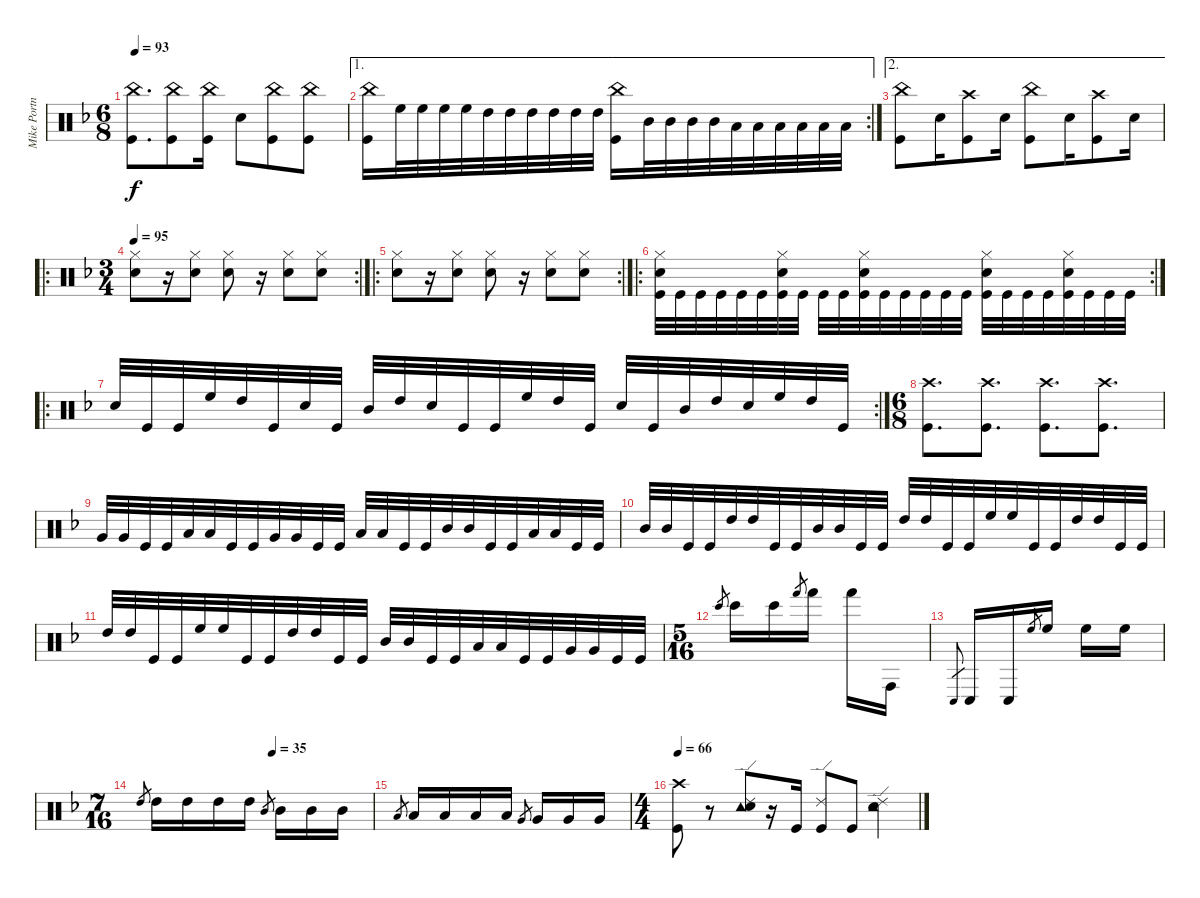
\track ("Mike Portnoy - Drums" "Mike Portn") {instrument percussion}
\staff {score}
\articulation defaults
\ts (6 8)
\tempo 93
\clef neutral
\ks dminor
("China (hit)" "Kick (hit)").8{d dy f} ("China (hit)" "Kick (hit)").8 ("China (hit)" "Kick (hit)").16 "Snare (hit) 2".8 ("China (hit)" "Kick (hit)").8 ("China (hit)" "Kick (hit)").8 |
\ae 1
\rc 2
("China (hit)" "Kick (hit)").16 "High Floor Tom (hit)".32 "High Floor Tom (hit)".32 "High Floor Tom (hit)".32 "High Floor Tom (hit)".32 "High Tom (hit)".32 "High Tom (hit)".32 "High Tom (hit)".32 "High Tom (hit)".32 "High Tom (hit)".32 "High Tom (hit)".32 ("China (hit)" "Kick (hit)").16 "Mid Tom (hit)".32 "Mid Tom (hit)".32 "Mid Tom (hit)".32 "Mid Tom (hit)".32 "Low Tom (hit)".32 "Low Tom (hit)".32 "Low Tom (hit)".32 "Low Tom (hit)".32 "Low Tom (hit)".32 "Low Tom (hit)".32 |
\ae 2
("China (hit)" "Kick (hit)").8 "Snare (hit) 2".16 ("Crash high (hit)" "Kick (hit)").8 "Snare (hit) 2".16 ("China (hit)" "Kick (hit)").8 "Snare (hit) 2".16 ("Crash high (hit)" "Kick (hit)").8 "Snare (hit) 2".16 |
\ro
\rc 2
\ts (3 4)
\tempo 95
("Hi-Hat (closed)" "Snare (hit) 2").8 r.16 ("Hi-Hat (closed)" "Snare (hit) 2").8 ("Hi-Hat (closed)" "Snare (hit) 2").8 r.16 ("Hi-Hat (closed)" "Snare (hit) 2").8 ("Hi-Hat (closed)" "Snare (hit) 2").8 |
\ro
\rc 2
("Hi-Hat (closed)" "Snare (hit) 2").8 r.16 ("Hi-Hat (closed)" "Snare (hit) 2").8 ("Hi-Hat (closed)" "Snare (hit) 2").8 r.16 ("Hi-Hat (closed)" "Snare (hit) 2").8 ("Hi-Hat (closed)" "Snare (hit) 2").8 |
\ro
\rc 2
("Hi-Hat (closed)" "Snare (hit) 2" "Kick (hit)").32 "Kick (hit)".32 "Kick (hit)".32 "Kick (hit)".32 "Kick (hit)".32 "Kick (hit)".32 ("Hi-Hat (closed)" "Snare (hit) 2" "Kick (hit)").32 "Kick (hit)".32 "Kick (hit)".32 "Kick (hit)".32 ("Hi-Hat (closed)" "Snare (hit) 2" "Kick (hit)").32 "Kick (hit)".32 "Kick (hit)".32 "Kick (hit)".32 "Kick (hit)".32 "Kick (hit)".32 ("Hi-Hat (closed)" "Snare (hit) 2" "Kick (hit)").32 "Kick (hit)".32 "Kick (hit)".32 "Kick (hit)".32 ("Hi-Hat (closed)" "Snare (hit) 2" "Kick (hit)").32 "Kick (hit)".32 "Kick (hit)".32 "Kick (hit)".32 |
\ro
\rc 2 "Snare (hit) 2".32 "Kick (hit)".32 "Kick (hit)".32 "High Floor Tom (hit)".32 "High Tom (hit)".32 "Kick (hit)".32 "Snare (hit) 2".32 "Kick (hit)".32 "Mid Tom (hit)".32 "High Tom (hit)".32 "Snare (hit) 2".32 "Kick (hit)".32 "Kick (hit)".32 "High Floor Tom (hit)".32 "High Tom (hit)".32 "Kick (hit)".32 "Snare (hit) 2".32 "Kick (hit)".32 "Mid Tom (hit)".32 "High Tom (hit)".32 "Snare (hit) 2".32 "High Floor Tom (hit)".32 "High Tom (hit)".32 "Kick (hit)".32
|
\ts (6 8)
("Crash high (hit)" "Kick (hit)").8{d} ("Crash high (hit)" "Kick (hit)").8{d} ("Crash high (hit)" "Kick (hit)").8{d} ("Crash high (hit)" "Kick (hit)").8{d} |
"Very Low Tom (hit)".32 "Very Low Tom (hit)".32 "Kick (hit)".32 "Kick (hit)".32 "Low Tom (hit)".32 "Low Tom (hit)".32 "Kick (hit)".32 "Kick (hit)".32 "Very Low Tom (hit)".32 "Very Low Tom (hit)".32 "Kick (hit)".32 "Kick (hit)".32 "Low Tom (hit)".32 "Low Tom (hit)".32 "Kick (hit)".32 "Kick (hit)".32 "Mid Tom (hit)".32 "Mid Tom (hit)".32 "Kick (hit)".32 "Kick (hit)".32 "Low Tom (hit)".32 "Low Tom (hit)".32 "Kick (hit)".32 "Kick (hit)".32 |
"Mid Tom (hit)".32 "Mid Tom (hit)".32 "Kick (hit)".32 "Kick (hit)".32 "High Tom (hit)".32 "High Tom (hit)".32 "Kick (hit)".32 "Kick (hit)".32 "Mid Tom (hit)".32 "Mid Tom (hit)".32 "Kick (hit)".32 "Kick (hit)".32 "High Tom (hit)".32 "High Tom (hit)".32 "Kick (hit)".32 "Kick (hit)".32 "High Floor Tom (hit)".32 "High Floor Tom (hit)".32 "Kick (hit)".32 "Kick (hit)".32 "High Tom (hit)".32 "High Tom (hit)".32 "Kick (hit)".32 "Kick (hit)".32 |
"High Tom (hit)".32 "High Tom (hit)".32 "Kick (hit)".32 "Kick (hit)".32 "High Floor Tom (hit)".32 "High Floor Tom (hit)".32 "Kick (hit)".32 "Kick (hit)".32 "High Tom (hit)".32 "High Tom (hit)".32 "Kick (hit)".32 "Kick (hit)".32 "Mid Tom (hit)".32 "Mid Tom (hit)".32 "Kick (hit)".32 "Kick (hit)".32 "Low Tom (hit)".32 "Low Tom (hit)".32 "Kick (hit)".32 "Kick (hit)".32 "Very Low Tom (hit)".32 "Very Low Tom (hit)".32 "Kick (hit)".32 "Kick (hit)".32 |
\ts (5 16)
"Bongo High (hit)".8{gr} "Bongo High (hit)".16 "Bongo High (hit)".16 "Hand (hit)".8{gr} "Hand (hit)".16 "Hand (hit)".16 "Conga high (hit)".16 |
"Conga low (hit)".8{gr} "Conga low (hit)".16 "Conga low (hit)".16 "High Floor Tom (hit)".8{gr} "High Floor Tom (hit)".16 "High Floor Tom (hit)".16 "High Floor Tom (hit)".16 |
\ts (7 16)
\tempo (35 0.5714285714285714)
"High Tom (hit)".8{gr} "High Tom (hit)".16 "High Tom (hit)".16 "High Tom (hit)".16 "High Tom (hit)".16 "Mid Tom (hit)".8{gr} "Mid Tom (hit)".16 "Mid Tom (hit)".16 "Mid Tom (hit)".16 |
"Low Tom (hit)".8{gr} "Low Tom (hit)".16 "Low Tom (hit)".16 "Low Tom (hit)".16 "Low Tom (hit)".16 "Very Low Tom (hit)".8{gr} "Very Low Tom (hit)".16 "Very Low Tom (hit)".16 "Very Low Tom (hit)".16 |
\ts (4 4)
\tempo 66
("Crash high (hit)" "Kick (hit)").8 r.8 ("Ride (edge) 2" "Tambourine (hit)" "Snare (hit) 2").8 r.16 "Kick (hit)".16 ("Ride (edge) 2" "Kick (hit)").8 "Kick (hit)".8 ("Ride (edge) 2" "Tambourine (hit)" "Snare (hit) 2").4
